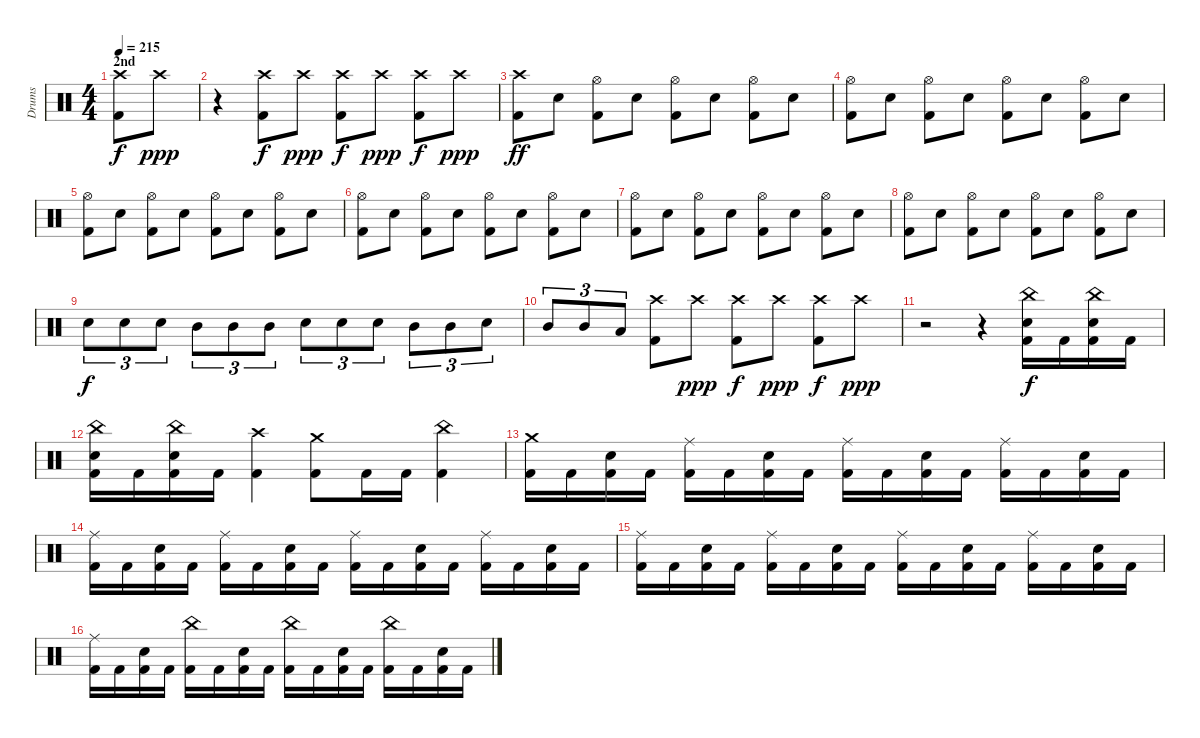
\track ("Drums" "Drums") {instrument percussion}
\staff {score}
\articulation defaults
\ts (4 4)
\section ("" "2nd")
\tempo 215
\clef neutral
\ks c
("Crash high (hit)" "Kick (hit) 2").8{dy f} "Crash high (hit)".8{dy ppp} |
r.4 ("Crash high (hit)" "Kick (hit) 2").8{dy f} "Crash high (hit)".8{dy ppp} ("Crash high (hit)" "Kick (hit) 2").8{dy f} "Crash high (hit)".8{dy ppp} ("Crash high (hit)" "Kick (hit) 2").8{dy f} "Crash high (hit)".8{dy ppp} |
("Crash high (hit)" "Kick (hit) 2").8{dy ff} "Snare (hit) 2".8 ("Hi-Hat (open)" "Kick (hit) 2").8 "Snare (hit) 2".8 ("Hi-Hat (open)" "Kick (hit) 2").8 "Snare (hit) 2".8 ("Hi-Hat (open)" "Kick (hit) 2").8 "Snare (hit) 2".8 |
("Hi-Hat (open)" "Kick (hit) 2").8 "Snare (hit) 2".8 ("Hi-Hat (open)" "Kick (hit) 2").8 "Snare (hit) 2".8 ("Hi-Hat (open)" "Kick (hit) 2").8 "Snare (hit) 2".8 ("Hi-Hat (open)" "Kick (hit) 2").8 "Snare (hit) 2".8 |
("Hi-Hat (open)" "Kick (hit) 2").8 "Snare (hit) 2".8 ("Hi-Hat (open)" "Kick (hit) 2").8 "Snare (hit) 2".8 ("Hi-Hat (open)" "Kick (hit) 2").8 "Snare (hit) 2".8 ("Hi-Hat (open)" "Kick (hit) 2").8 "Snare (hit) 2".8 |
("Hi-Hat (open)" "Kick (hit) 2").8 "Snare (hit) 2".8 ("Hi-Hat (open)" "Kick (hit) 2").8 "Snare (hit) 2".8 ("Hi-Hat (open)" "Kick (hit) 2").8 "Snare (hit) 2".8 ("Hi-Hat (open)" "Kick (hit) 2").8 "Snare (hit) 2".8 |
("Hi-Hat (open)" "Kick (hit) 2").8 "Snare (hit) 2".8 ("Hi-Hat (open)" "Kick (hit) 2").8 "Snare (hit) 2".8 ("Hi-Hat (open)" "Kick (hit) 2").8 "Snare (hit) 2".8 ("Hi-Hat (open)" "Kick (hit) 2").8 "Snare (hit) 2".8 |
("Hi-Hat (open)" "Kick (hit) 2").8 "Snare (hit) 2".8 ("Hi-Hat (open)" "Kick (hit) 2").8 "Snare (hit) 2".8 ("Hi-Hat (open)" "Kick (hit) 2").8 "Snare (hit) 2".8 ("Hi-Hat (open)" "Kick (hit) 2").8 "Snare (hit) 2".8 |
"Snare (hit) 2".8{tu (3 2) dy f} "Snare (hit) 2".8{tu (3 2)} "Snare (hit) 2".8{tu (3 2)} "Mid Tom (hit)".8{tu (3 2)} "Mid Tom (hit)".8{tu (3 2)} "Mid Tom (hit)".8{tu (3 2)} "Snare (hit) 2".8{tu (3 2)} "Snare (hit) 2".8{tu (3 2)} "Snare (hit) 2".8{tu (3 2)} "Mid Tom (hit)".8{tu (3 2)} "Mid Tom (hit)".8{tu (3 2)} "Snare (hit) 2".8{tu (3 2)} |
"Mid Tom (hit)".8{tu (3 2)} "Mid Tom (hit)".8{tu (3 2)} "Low Tom (hit)".8{tu (3 2)} ("Crash high (hit)" "Kick (hit) 2").8 "Crash high (hit)".8{dy ppp} ("Crash high (hit)" "Kick (hit) 2").8{dy f} "Crash high (hit)".8{dy ppp} ("Crash high (hit)" "Kick (hit) 2").8{dy f} "Crash high (hit)".8{dy ppp} |
r.2 r.4 ("Kick (hit) 2" "China (hit)" "Snare (hit) 2").16{dy f} "Kick (hit) 2".16 ("Kick (hit) 2" "China (hit)" "Snare (hit) 2").16 "Kick (hit) 2".16 |
("Kick (hit) 2" "China (hit)" "Snare (hit) 2").16 "Kick (hit) 2".16 ("Kick (hit) 2" "China (hit)" "Snare (hit) 2").16 "Kick (hit) 2".16 ("Crash high (hit)" "Kick (hit) 2").4 ("Crash medium (hit)" "Kick (hit) 2").8 "Kick (hit) 2".16 "Kick (hit) 2".16 ("China (hit)" "Kick (hit) 2").4 |
("Crash medium (hit)" "Kick (hit) 2").16 "Kick (hit) 2".16 ("Snare (hit) 2" "Kick (hit) 2").16 "Kick (hit) 2".16 ("Ride (middle)" "Kick (hit) 2").16 "Kick (hit) 2".16 ("Snare (hit) 2" "Kick (hit) 2").16 "Kick (hit) 2".16 ("Ride (middle)" "Kick (hit) 2").16 "Kick (hit) 2".16 ("Snare (hit) 2" "Kick (hit) 2").16 "Kick (hit) 2".16 ("Ride (middle)" "Kick (hit) 2").16 "Kick (hit) 2".16 ("Snare (hit) 2" "Kick (hit) 2").16 "Kick (hit) 2".16 |
("Ride (middle)" "Kick (hit) 2").16 "Kick (hit) 2".16 ("Snare (hit) 2" "Kick (hit) 2").16 "Kick (hit) 2".16 ("Ride (middle)" "Kick (hit) 2").16 "Kick (hit) 2".16 ("Snare (hit) 2" "Kick (hit) 2").16 "Kick (hit) 2".16 ("Ride (middle)" "Kick (hit) 2").16 "Kick (hit) 2".16 ("Snare (hit) 2" "Kick (hit) 2").16 "Kick (hit) 2".16 ("Ride (middle)" "Kick (hit) 2").16 "Kick (hit) 2".16 ("Snare (hit) 2" "Kick (hit) 2").16 "Kick (hit) 2".16 |
("Ride (middle)" "Kick (hit) 2").16 "Kick (hit) 2".16 ("Snare (hit) 2" "Kick (hit) 2").16 "Kick (hit) 2".16 ("Ride (middle)" "Kick (hit) 2").16 "Kick (hit) 2".16 ("Snare (hit) 2" "Kick (hit) 2").16 "Kick (hit) 2".16 ("Ride (middle)" "Kick (hit) 2").16 "Kick (hit) 2".16 ("Snare (hit) 2" "Kick (hit) 2").16 "Kick (hit) 2".16 ("Ride (middle)" "Kick (hit) 2").16 "Kick (hit) 2".16 ("Snare (hit) 2" "Kick (hit) 2").16 "Kick (hit) 2".16 |
("Ride (middle)" "Kick (hit) 2").16 "Kick (hit) 2".16 ("Snare (hit) 2" "Kick (hit) 2").16 "Kick (hit) 2".16 ("China (hit)" "Kick (hit) 2").16 "Kick (hit) 2".16 ("Snare (hit) 2" "Kick (hit) 2").16 "Kick (hit) 2".16 ("China (hit)" "Kick (hit) 2").16 "Kick (hit) 2".16 ("Snare (hit) 2" "Kick (hit) 2").16 "Kick (hit) 2".16 ("China (hit)" "Kick (hit) 2").16 "Kick (hit) 2".16 ("Snare (hit) 2" "Kick (hit) 2").16 "Kick (hit) 2".16
